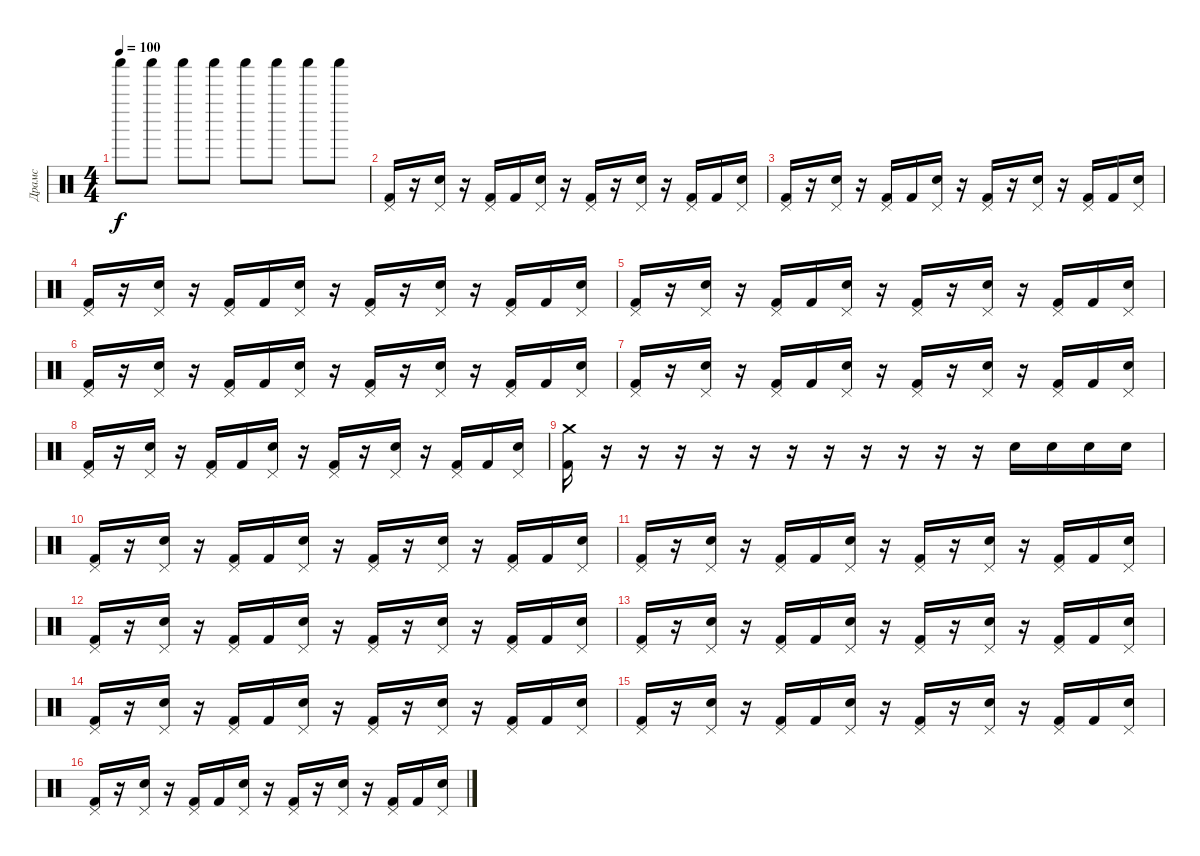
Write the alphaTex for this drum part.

\track ("Драмс" "Драмс") {instrument percussion}
\staff {score}
\articulation defaults
\ts (4 4)
\tempo 100
\clef neutral
\ks c "Shaker (hit)".8{dy f} "Shaker (hit)".8 "Shaker (hit)".8 "Shaker (hit)".8 "Shaker (hit)".8 "Shaker (hit)".8 "Shaker (hit)".8 "Shaker (hit)".8
|
("Pedal Hi-Hat (hit)" "Kick (hit) 2").16 r.16 ("Pedal Hi-Hat (hit)" "Snare (hit) 2").16 r.16 ("Pedal Hi-Hat (hit)" "Kick (hit) 2").16 "Kick (hit) 2".16 ("Pedal Hi-Hat (hit)" "Snare (hit) 2").16 r.16 ("Pedal Hi-Hat (hit)" "Kick (hit) 2").16 r.16 ("Pedal Hi-Hat (hit)" "Snare (hit) 2").16 r.16 ("Pedal Hi-Hat (hit)" "Kick (hit) 2").16 "Kick (hit) 2".16 ("Pedal Hi-Hat (hit)" "Snare (hit) 2").16 |
("Pedal Hi-Hat (hit)" "Kick (hit) 2").16 r.16 ("Pedal Hi-Hat (hit)" "Snare (hit) 2").16 r.16 ("Pedal Hi-Hat (hit)" "Kick (hit) 2").16 "Kick (hit) 2".16 ("Pedal Hi-Hat (hit)" "Snare (hit) 2").16 r.16 ("Pedal Hi-Hat (hit)" "Kick (hit) 2").16 r.16 ("Pedal Hi-Hat (hit)" "Snare (hit) 2").16 r.16 ("Pedal Hi-Hat (hit)" "Kick (hit) 2").16 "Kick (hit) 2".16 ("Pedal Hi-Hat (hit)" "Snare (hit) 2").16 |
("Pedal Hi-Hat (hit)" "Kick (hit) 2").16 r.16 ("Pedal Hi-Hat (hit)" "Snare (hit) 2").16 r.16 ("Pedal Hi-Hat (hit)" "Kick (hit) 2").16 "Kick (hit) 2".16 ("Pedal Hi-Hat (hit)" "Snare (hit) 2").16 r.16 ("Pedal Hi-Hat (hit)" "Kick (hit) 2").16 r.16 ("Pedal Hi-Hat (hit)" "Snare (hit) 2").16 r.16 ("Pedal Hi-Hat (hit)" "Kick (hit) 2").16 "Kick (hit) 2".16 ("Pedal Hi-Hat (hit)" "Snare (hit) 2").16 |
("Pedal Hi-Hat (hit)" "Kick (hit) 2").16 r.16 ("Pedal Hi-Hat (hit)" "Snare (hit) 2").16 r.16 ("Pedal Hi-Hat (hit)" "Kick (hit) 2").16 "Kick (hit) 2".16 ("Pedal Hi-Hat (hit)" "Snare (hit) 2").16 r.16 ("Pedal Hi-Hat (hit)" "Kick (hit) 2").16 r.16 ("Pedal Hi-Hat (hit)" "Snare (hit) 2").16 r.16 ("Pedal Hi-Hat (hit)" "Kick (hit) 2").16 "Kick (hit) 2".16 ("Pedal Hi-Hat (hit)" "Snare (hit) 2").16 |
("Pedal Hi-Hat (hit)" "Kick (hit) 2").16 r.16 ("Pedal Hi-Hat (hit)" "Snare (hit) 2").16 r.16 ("Pedal Hi-Hat (hit)" "Kick (hit) 2").16 "Kick (hit) 2".16 ("Pedal Hi-Hat (hit)" "Snare (hit) 2").16 r.16 ("Pedal Hi-Hat (hit)" "Kick (hit) 2").16 r.16 ("Pedal Hi-Hat (hit)" "Snare (hit) 2").16 r.16 ("Pedal Hi-Hat (hit)" "Kick (hit) 2").16 "Kick (hit) 2".16 ("Pedal Hi-Hat (hit)" "Snare (hit) 2").16 |
("Pedal Hi-Hat (hit)" "Kick (hit) 2").16 r.16 ("Pedal Hi-Hat (hit)" "Snare (hit) 2").16 r.16 ("Pedal Hi-Hat (hit)" "Kick (hit) 2").16 "Kick (hit) 2".16 ("Pedal Hi-Hat (hit)" "Snare (hit) 2").16 r.16 ("Pedal Hi-Hat (hit)" "Kick (hit) 2").16 r.16 ("Pedal Hi-Hat (hit)" "Snare (hit) 2").16 r.16 ("Pedal Hi-Hat (hit)" "Kick (hit) 2").16 "Kick (hit) 2".16 ("Pedal Hi-Hat (hit)" "Snare (hit) 2").16 |
("Pedal Hi-Hat (hit)" "Kick (hit) 2").16 r.16 ("Pedal Hi-Hat (hit)" "Snare (hit) 2").16 r.16 ("Pedal Hi-Hat (hit)" "Kick (hit) 2").16 "Kick (hit) 2".16 ("Pedal Hi-Hat (hit)" "Snare (hit) 2").16 r.16 ("Pedal Hi-Hat (hit)" "Kick (hit) 2").16 r.16 ("Pedal Hi-Hat (hit)" "Snare (hit) 2").16 r.16 ("Pedal Hi-Hat (hit)" "Kick (hit) 2").16 "Kick (hit) 2".16 ("Pedal Hi-Hat (hit)" "Snare (hit) 2").16 |
("Crash medium (hit)" "Kick (hit) 2").16 r.16 r.16 r.16 r.16 r.16 r.16 r.16 r.16 r.16 r.16 r.16 "Snare (hit) 2".16 "Snare (hit) 2".16 "Snare (hit) 2".16 "Snare (hit) 2".16 |
("Pedal Hi-Hat (hit)" "Kick (hit) 2").16 r.16 ("Pedal Hi-Hat (hit)" "Snare (hit) 2").16 r.16 ("Pedal Hi-Hat (hit)" "Kick (hit) 2").16 "Kick (hit) 2".16 ("Pedal Hi-Hat (hit)" "Snare (hit) 2").16 r.16 ("Pedal Hi-Hat (hit)" "Kick (hit) 2").16 r.16 ("Pedal Hi-Hat (hit)" "Snare (hit) 2").16 r.16 ("Pedal Hi-Hat (hit)" "Kick (hit) 2").16 "Kick (hit) 2".16 ("Pedal Hi-Hat (hit)" "Snare (hit) 2").16 |
("Pedal Hi-Hat (hit)" "Kick (hit) 2").16 r.16 ("Pedal Hi-Hat (hit)" "Snare (hit) 2").16 r.16 ("Pedal Hi-Hat (hit)" "Kick (hit) 2").16 "Kick (hit) 2".16 ("Pedal Hi-Hat (hit)" "Snare (hit) 2").16 r.16 ("Pedal Hi-Hat (hit)" "Kick (hit) 2").16 r.16 ("Pedal Hi-Hat (hit)" "Snare (hit) 2").16 r.16 ("Pedal Hi-Hat (hit)" "Kick (hit) 2").16 "Kick (hit) 2".16 ("Pedal Hi-Hat (hit)" "Snare (hit) 2").16 |
("Pedal Hi-Hat (hit)" "Kick (hit) 2").16 r.16 ("Pedal Hi-Hat (hit)" "Snare (hit) 2").16 r.16 ("Pedal Hi-Hat (hit)" "Kick (hit) 2").16 "Kick (hit) 2".16 ("Pedal Hi-Hat (hit)" "Snare (hit) 2").16 r.16 ("Pedal Hi-Hat (hit)" "Kick (hit) 2").16 r.16 ("Pedal Hi-Hat (hit)" "Snare (hit) 2").16 r.16 ("Pedal Hi-Hat (hit)" "Kick (hit) 2").16 "Kick (hit) 2".16 ("Pedal Hi-Hat (hit)" "Snare (hit) 2").16 |
("Pedal Hi-Hat (hit)" "Kick (hit) 2").16 r.16 ("Pedal Hi-Hat (hit)" "Snare (hit) 2").16 r.16 ("Pedal Hi-Hat (hit)" "Kick (hit) 2").16 "Kick (hit) 2".16 ("Pedal Hi-Hat (hit)" "Snare (hit) 2").16 r.16 ("Pedal Hi-Hat (hit)" "Kick (hit) 2").16 r.16 ("Pedal Hi-Hat (hit)" "Snare (hit) 2").16 r.16 ("Pedal Hi-Hat (hit)" "Kick (hit) 2").16 "Kick (hit) 2".16 ("Pedal Hi-Hat (hit)" "Snare (hit) 2").16 |
("Pedal Hi-Hat (hit)" "Kick (hit) 2").16 r.16 ("Pedal Hi-Hat (hit)" "Snare (hit) 2").16 r.16 ("Pedal Hi-Hat (hit)" "Kick (hit) 2").16 "Kick (hit) 2".16 ("Pedal Hi-Hat (hit)" "Snare (hit) 2").16 r.16 ("Pedal Hi-Hat (hit)" "Kick (hit) 2").16 r.16 ("Pedal Hi-Hat (hit)" "Snare (hit) 2").16 r.16 ("Pedal Hi-Hat (hit)" "Kick (hit) 2").16 "Kick (hit) 2".16 ("Pedal Hi-Hat (hit)" "Snare (hit) 2").16 |
("Pedal Hi-Hat (hit)" "Kick (hit) 2").16 r.16 ("Pedal Hi-Hat (hit)" "Snare (hit) 2").16 r.16 ("Pedal Hi-Hat (hit)" "Kick (hit) 2").16 "Kick (hit) 2".16 ("Pedal Hi-Hat (hit)" "Snare (hit) 2").16 r.16 ("Pedal Hi-Hat (hit)" "Kick (hit) 2").16 r.16 ("Pedal Hi-Hat (hit)" "Snare (hit) 2").16 r.16 ("Pedal Hi-Hat (hit)" "Kick (hit) 2").16 "Kick (hit) 2".16 ("Pedal Hi-Hat (hit)" "Snare (hit) 2").16 |
("Pedal Hi-Hat (hit)" "Kick (hit) 2").16 r.16 ("Pedal Hi-Hat (hit)" "Snare (hit) 2").16 r.16 ("Pedal Hi-Hat (hit)" "Kick (hit) 2").16 "Kick (hit) 2".16 ("Pedal Hi-Hat (hit)" "Snare (hit) 2").16 r.16 ("Pedal Hi-Hat (hit)" "Kick (hit) 2").16 r.16 ("Pedal Hi-Hat (hit)" "Snare (hit) 2").16 r.16 ("Pedal Hi-Hat (hit)" "Kick (hit) 2").16 "Kick (hit) 2".16 ("Pedal Hi-Hat (hit)" "Snare (hit) 2").16
